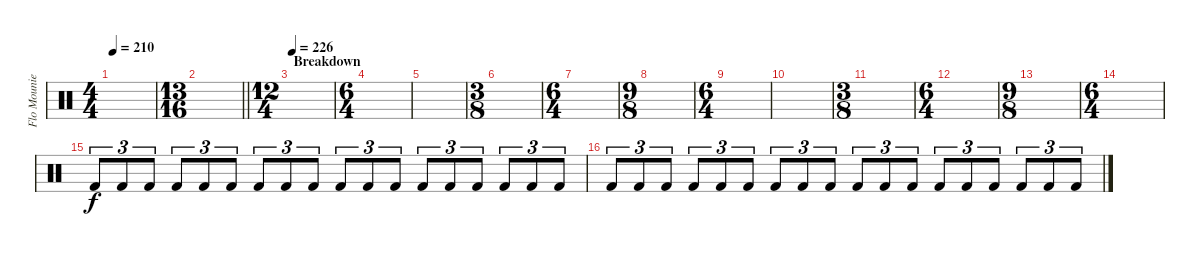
\track ("Flo Mounier " "Flo Mounie") {instrument percussion}
\staff {score}
\articulation defaults
\ts (4 4)
\tempo 210
\clef neutral
\ks c
|
\ts (13 16)
\barLineRight lightlight
|
\ts (12 4)
\section ("" "Breakdown")
\tempo 226
|
\ts (6 4)
|
|
\ts (3 8)
|
\ts (6 4)
|
\ts (9 8)
|
\ts (6 4)
|
|
\ts (3 8)
|
\ts (6 4)
|
\ts (9 8)
|
\ts (6 4)
|
"Kick (hit) 2".8{tu (3 2)} "Kick (hit) 2".8{tu (3 2)} "Kick (hit) 2".8{tu (3 2)} "Kick (hit) 2".8{tu (3 2)} "Kick (hit) 2".8{tu (3 2)} "Kick (hit) 2".8{tu (3 2)} "Kick (hit) 2".8{tu (3 2)} "Kick (hit) 2".8{tu (3 2)} "Kick (hit) 2".8{tu (3 2)} "Kick (hit) 2".8{tu (3 2)} "Kick (hit) 2".8{tu (3 2)} "Kick (hit) 2".8{tu (3 2)} "Kick (hit) 2".8{tu (3 2)} "Kick (hit) 2".8{tu (3 2)} "Kick (hit) 2".8{tu (3 2)} "Kick (hit) 2".8{tu (3 2)} "Kick (hit) 2".8{tu (3 2)} "Kick (hit) 2".8{tu (3 2)} |
"Kick (hit) 2".8{tu (3 2)} "Kick (hit) 2".8{tu (3 2)} "Kick (hit) 2".8{tu (3 2)} "Kick (hit) 2".8{tu (3 2)} "Kick (hit) 2".8{tu (3 2)} "Kick (hit) 2".8{tu (3 2)} "Kick (hit) 2".8{tu (3 2)} "Kick (hit) 2".8{tu (3 2)} "Kick (hit) 2".8{tu (3 2)} "Kick (hit) 2".8{tu (3 2)} "Kick (hit) 2".8{tu (3 2)} "Kick (hit) 2".8{tu (3 2)} "Kick (hit) 2".8{tu (3 2)} "Kick (hit) 2".8{tu (3 2)} "Kick (hit) 2".8{tu (3 2)} "Kick (hit) 2".8{tu (3 2)} "Kick (hit) 2".8{tu (3 2)} "Kick (hit) 2".8{tu (3 2)}
